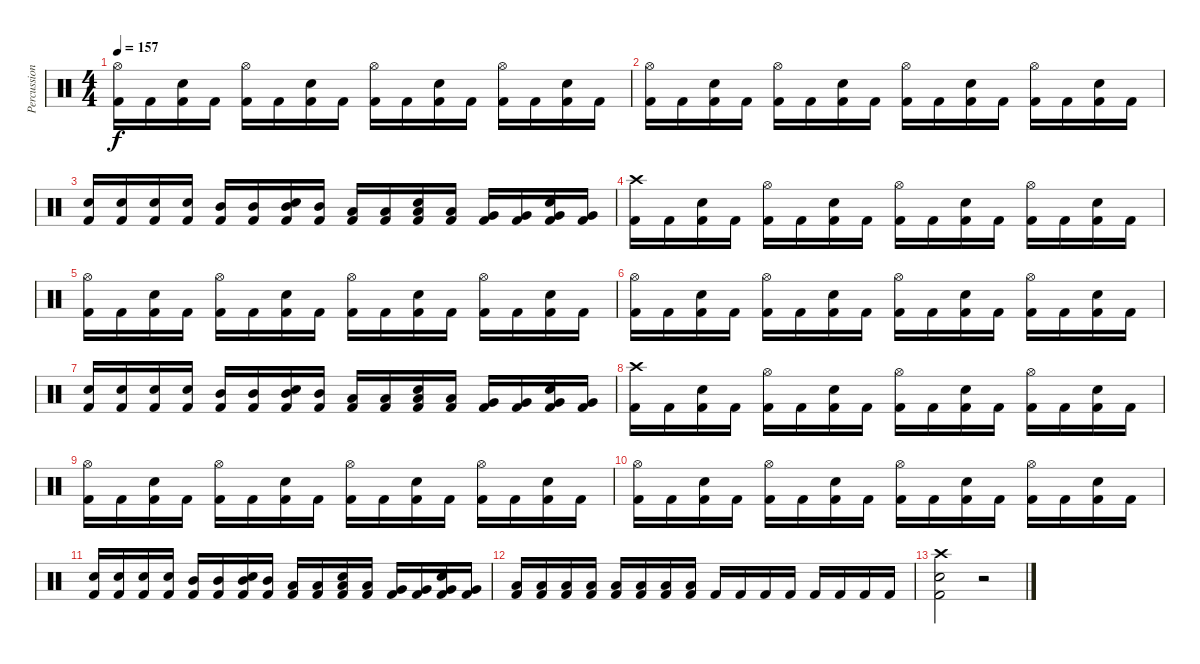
\track ("Percussions" "Percussion") {instrument percussion}
\staff {score}
\articulation defaults
\ts (4 4)
\tempo 157
\clef neutral
\ks c
("Hi-Hat (open)" "Kick (hit) 2").16{dy f} "Kick (hit) 2".16 ("Snare (hit) 2" "Kick (hit) 2").16 "Kick (hit) 2".16 ("Hi-Hat (open)" "Kick (hit) 2").16 "Kick (hit) 2".16 ("Snare (hit) 2" "Kick (hit) 2").16 "Kick (hit) 2".16 ("Hi-Hat (open)" "Kick (hit) 2").16 "Kick (hit) 2".16 ("Snare (hit) 2" "Kick (hit) 2").16 "Kick (hit) 2".16 ("Hi-Hat (open)" "Kick (hit) 2").16 "Kick (hit) 2".16 ("Snare (hit) 2" "Kick (hit) 2").16 "Kick (hit) 2".16 |
("Hi-Hat (open)" "Kick (hit) 2").16 "Kick (hit) 2".16 ("Snare (hit) 2" "Kick (hit) 2").16 "Kick (hit) 2".16 ("Hi-Hat (open)" "Kick (hit) 2").16 "Kick (hit) 2".16 ("Snare (hit) 2" "Kick (hit) 2").16 "Kick (hit) 2".16 ("Hi-Hat (open)" "Kick (hit) 2").16 "Kick (hit) 2".16 ("Snare (hit) 2" "Kick (hit) 2").16 "Kick (hit) 2".16 ("Hi-Hat (open)" "Kick (hit) 2").16 "Kick (hit) 2".16 ("Snare (hit) 2" "Kick (hit) 2").16 "Kick (hit) 2".16 |
("Snare (hit) 2" "Kick (hit) 2").16 ("Snare (hit) 2" "Kick (hit) 2").16 ("Snare (hit) 2" "Kick (hit) 2").16 ("Snare (hit) 2" "Kick (hit) 2").16 ("Mid Tom (hit)" "Kick (hit) 2").16 ("Mid Tom (hit)" "Kick (hit) 2").16 ("Mid Tom (hit)" "Snare (hit) 2" "Kick (hit) 2").16 ("Mid Tom (hit)" "Kick (hit) 2").16 ("Low Tom (hit)" "Kick (hit) 2").16 ("Low Tom (hit)" "Kick (hit) 2").16 ("Low Tom (hit)" "Snare (hit) 2" "Kick (hit) 2").16 ("Low Tom (hit)" "Kick (hit) 2").16 ("Very Low Tom (hit)" "Kick (hit) 2").16 ("Very Low Tom (hit)" "Kick (hit) 2").16 ("Very Low Tom (hit)" "Snare (hit) 2" "Kick (hit) 2").16 ("Very Low Tom (hit)" "Kick (hit) 2").16 |
("Crash high (hit)" "Kick (hit) 2").16 "Kick (hit) 2".16 ("Snare (hit) 2" "Kick (hit) 2").16 "Kick (hit) 2".16 ("Hi-Hat (open)" "Kick (hit) 2").16 "Kick (hit) 2".16 ("Snare (hit) 2" "Kick (hit) 2").16 "Kick (hit) 2".16 ("Hi-Hat (open)" "Kick (hit) 2").16 "Kick (hit) 2".16 ("Snare (hit) 2" "Kick (hit) 2").16 "Kick (hit) 2".16 ("Hi-Hat (open)" "Kick (hit) 2").16 "Kick (hit) 2".16 ("Snare (hit) 2" "Kick (hit) 2").16 "Kick (hit) 2".16 |
("Hi-Hat (open)" "Kick (hit) 2").16 "Kick (hit) 2".16 ("Snare (hit) 2" "Kick (hit) 2").16 "Kick (hit) 2".16 ("Hi-Hat (open)" "Kick (hit) 2").16 "Kick (hit) 2".16 ("Snare (hit) 2" "Kick (hit) 2").16 "Kick (hit) 2".16 ("Hi-Hat (open)" "Kick (hit) 2").16 "Kick (hit) 2".16 ("Snare (hit) 2" "Kick (hit) 2").16 "Kick (hit) 2".16 ("Hi-Hat (open)" "Kick (hit) 2").16 "Kick (hit) 2".16 ("Snare (hit) 2" "Kick (hit) 2").16 "Kick (hit) 2".16 |
("Hi-Hat (open)" "Kick (hit) 2").16 "Kick (hit) 2".16 ("Snare (hit) 2" "Kick (hit) 2").16 "Kick (hit) 2".16 ("Hi-Hat (open)" "Kick (hit) 2").16 "Kick (hit) 2".16 ("Snare (hit) 2" "Kick (hit) 2").16 "Kick (hit) 2".16 ("Hi-Hat (open)" "Kick (hit) 2").16 "Kick (hit) 2".16 ("Snare (hit) 2" "Kick (hit) 2").16 "Kick (hit) 2".16 ("Hi-Hat (open)" "Kick (hit) 2").16 "Kick (hit) 2".16 ("Snare (hit) 2" "Kick (hit) 2").16 "Kick (hit) 2".16 |
("Snare (hit) 2" "Kick (hit) 2").16 ("Snare (hit) 2" "Kick (hit) 2").16 ("Snare (hit) 2" "Kick (hit) 2").16 ("Snare (hit) 2" "Kick (hit) 2").16 ("Mid Tom (hit)" "Kick (hit) 2").16 ("Mid Tom (hit)" "Kick (hit) 2").16 ("Mid Tom (hit)" "Snare (hit) 2" "Kick (hit) 2").16 ("Mid Tom (hit)" "Kick (hit) 2").16 ("Low Tom (hit)" "Kick (hit) 2").16 ("Low Tom (hit)" "Kick (hit) 2").16 ("Low Tom (hit)" "Snare (hit) 2" "Kick (hit) 2").16 ("Low Tom (hit)" "Kick (hit) 2").16 ("Very Low Tom (hit)" "Kick (hit) 2").16 ("Very Low Tom (hit)" "Kick (hit) 2").16 ("Very Low Tom (hit)" "Snare (hit) 2" "Kick (hit) 2").16 ("Very Low Tom (hit)" "Kick (hit) 2").16 |
("Crash high (hit)" "Kick (hit) 2").16 "Kick (hit) 2".16 ("Snare (hit) 2" "Kick (hit) 2").16 "Kick (hit) 2".16 ("Hi-Hat (open)" "Kick (hit) 2").16 "Kick (hit) 2".16 ("Snare (hit) 2" "Kick (hit) 2").16 "Kick (hit) 2".16 ("Hi-Hat (open)" "Kick (hit) 2").16 "Kick (hit) 2".16 ("Snare (hit) 2" "Kick (hit) 2").16 "Kick (hit) 2".16 ("Hi-Hat (open)" "Kick (hit) 2").16 "Kick (hit) 2".16 ("Snare (hit) 2" "Kick (hit) 2").16 "Kick (hit) 2".16 |
("Hi-Hat (open)" "Kick (hit) 2").16 "Kick (hit) 2".16 ("Snare (hit) 2" "Kick (hit) 2").16 "Kick (hit) 2".16 ("Hi-Hat (open)" "Kick (hit) 2").16 "Kick (hit) 2".16 ("Snare (hit) 2" "Kick (hit) 2").16 "Kick (hit) 2".16 ("Hi-Hat (open)" "Kick (hit) 2").16 "Kick (hit) 2".16 ("Snare (hit) 2" "Kick (hit) 2").16 "Kick (hit) 2".16 ("Hi-Hat (open)" "Kick (hit) 2").16 "Kick (hit) 2".16 ("Snare (hit) 2" "Kick (hit) 2").16 "Kick (hit) 2".16 |
("Hi-Hat (open)" "Kick (hit) 2").16 "Kick (hit) 2".16 ("Snare (hit) 2" "Kick (hit) 2").16 "Kick (hit) 2".16 ("Hi-Hat (open)" "Kick (hit) 2").16 "Kick (hit) 2".16 ("Snare (hit) 2" "Kick (hit) 2").16 "Kick (hit) 2".16 ("Hi-Hat (open)" "Kick (hit) 2").16 "Kick (hit) 2".16 ("Snare (hit) 2" "Kick (hit) 2").16 "Kick (hit) 2".16 ("Hi-Hat (open)" "Kick (hit) 2").16 "Kick (hit) 2".16 ("Snare (hit) 2" "Kick (hit) 2").16 "Kick (hit) 2".16 |
("Snare (hit) 2" "Kick (hit) 2").16 ("Snare (hit) 2" "Kick (hit) 2").16 ("Snare (hit) 2" "Kick (hit) 2").16 ("Snare (hit) 2" "Kick (hit) 2").16 ("Mid Tom (hit)" "Kick (hit) 2").16 ("Mid Tom (hit)" "Kick (hit) 2").16 ("Mid Tom (hit)" "Snare (hit) 2" "Kick (hit) 2").16 ("Mid Tom (hit)" "Kick (hit) 2").16 ("Low Tom (hit)" "Kick (hit) 2").16 ("Low Tom (hit)" "Kick (hit) 2").16 ("Low Tom (hit)" "Snare (hit) 2" "Kick (hit) 2").16 ("Low Tom (hit)" "Kick (hit) 2").16 ("Very Low Tom (hit)" "Kick (hit) 2").16 ("Very Low Tom (hit)" "Kick (hit) 2").16 ("Very Low Tom (hit)" "Snare (hit) 2" "Kick (hit) 2").16 ("Very Low Tom (hit)" "Kick (hit) 2").16 |
("Low Floor Tom (hit)" "Kick (hit) 2").16 ("Low Floor Tom (hit)" "Kick (hit) 2").16 ("Low Floor Tom (hit)" "Kick (hit) 2").16 ("Low Floor Tom (hit)" "Kick (hit) 2").16 ("Low Floor Tom (hit)" "Kick (hit) 2").16 ("Low Floor Tom (hit)" "Kick (hit) 2").16 ("Low Floor Tom (hit)" "Kick (hit) 2").16 ("Low Floor Tom (hit)" "Kick (hit) 2").16 "Kick (hit) 2".16 "Kick (hit) 2".16 "Kick (hit) 2".16 "Kick (hit) 2".16 "Kick (hit) 2".16 "Kick (hit) 2".16 "Kick (hit) 2".16 "Kick (hit) 2".16 |
("Crash high (hit)" "Snare (hit) 2" "Kick (hit) 2").2 r.2
